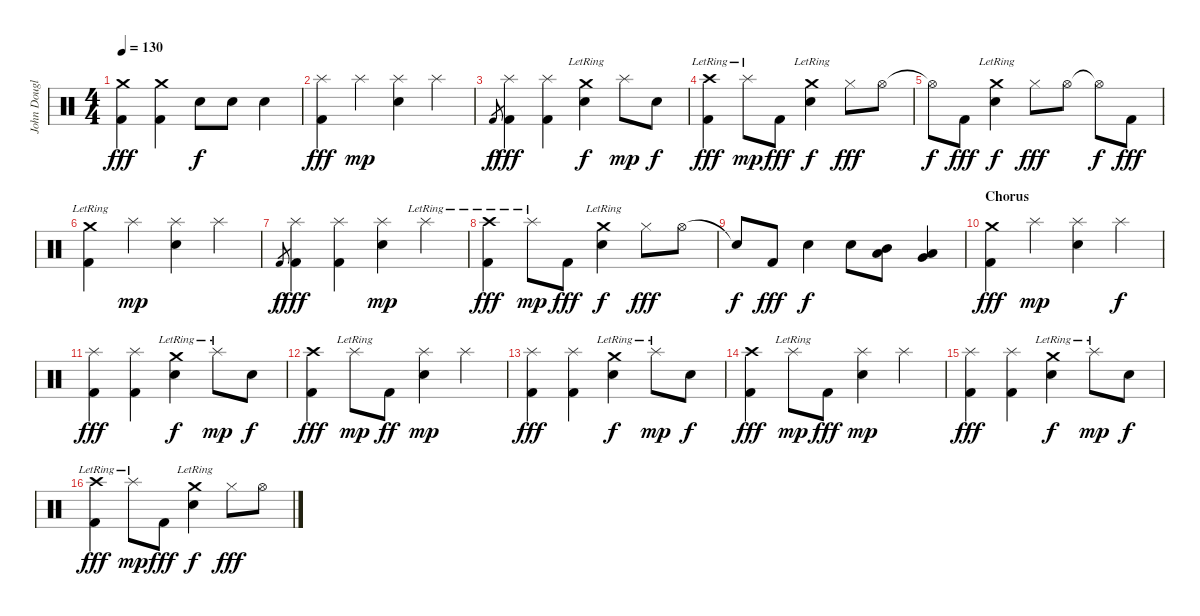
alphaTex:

\track ("John Douglas (Drums)" "John Dougl") {instrument percussion}
\staff {score}
\articulation defaults
\ts (4 4)
\tempo 130
\clef neutral
\ks c
("Crash medium (hit)" "Kick (hit) 2").4{dy fff} ("Crash medium (hit)" "Kick (hit) 2").4 "Snare (hit) 2".8{dy f} "Snare (hit) 2".8 "Snare (hit) 2".4 |
("Splash (hit)" "Kick (hit) 2").4{dy fff} "Splash (hit)".4{dy mp} ("Splash (hit)" "Snare (hit) 2").4 "Splash (hit)".4 |
"Kick (hit) 2".8{gr dy f} ("Splash (hit)" "Kick (hit) 2").4{dy fff} ("Splash (hit)" "Kick (hit) 2").4 ("Crash medium (hit)"{lr} "Snare (hit) 2").4{dy f} "Splash (hit)".8{dy mp} "Snare (hit) 2".8{dy f} |
("Crash high (hit)"{lr} "Kick (hit) 2").4{dy fff} "Splash (hit)"{lr}.8{dy mp} "Kick (hit) 2".8{dy fff} ("Crash medium (hit)"{lr} "Snare (hit) 2").4{dy f} "Hi-Hat (closed)".8{dy fff} "Hi-Hat (open)".8 |
"Hi-Hat (open)"{t}.8{dy f} "Kick (hit) 2".8{dy fff} ("Crash medium (hit)"{lr} "Snare (hit) 2").4{dy f} "Hi-Hat (closed)".8{dy fff} "Hi-Hat (open)".8 "Hi-Hat (open)"{t}.8{dy f} "Kick (hit) 2".8{dy fff} |
("Crash medium (hit)"{lr} "Kick (hit) 2").4 "Splash (hit)".4{dy mp} ("Splash (hit)" "Snare (hit) 2").4 "Splash (hit)".4 |
"Kick (hit) 2".8{gr dy f} ("Splash (hit)" "Kick (hit) 2").4{dy fff} ("Splash (hit)" "Kick (hit) 2").4 ("Splash (hit)" "Snare (hit) 2").4{dy mp} "Splash (hit)"{lr}.4 |
("Crash high (hit)"{lr} "Kick (hit) 2").4{dy fff} "Splash (hit)"{lr}.8{dy mp} "Kick (hit) 2".8{dy fff} ("Crash medium (hit)"{lr} "Snare (hit) 2").4{dy f} "Hi-Hat (closed)".8{dy fff} "Hi-Hat (open)".8 |
"Snare (hit)"{t}.8{dy f} "Kick (hit) 2".8{dy fff} "Snare (hit) 2".4{dy f} "Snare (hit) 2".8 ("Mid Tom (hit)" "Low Tom (hit)").8 ("Low Tom (hit)" "Very Low Tom (hit)").4 |
\section ("" "Chorus")
("Crash medium (hit)" "Kick (hit) 2").4{dy fff} "Splash (hit)".4{dy mp} ("Splash (hit)" "Snare (hit) 2").4 "Splash (hit)".4{dy f} |
("Splash (hit)" "Kick (hit) 2").4{dy fff} ("Splash (hit)" "Kick (hit) 2").4 ("Crash medium (hit)"{lr} "Snare (hit) 2").4{dy f} "Splash (hit)"{lr}.8{dy mp} "Snare (hit) 2".8{dy f} |
("Crash high (hit)" "Kick (hit) 2").4{dy fff} "Splash (hit)"{lr}.8{dy mp} "Kick (hit) 2".8{dy ff} ("Splash (hit)" "Snare (hit) 2").4{dy mp} "Splash (hit)".4 |
("Splash (hit)" "Kick (hit) 2").4{dy fff} ("Splash (hit)" "Kick (hit) 2").4 ("Crash medium (hit)"{lr} "Snare (hit) 2").4{dy f} "Splash (hit)"{lr}.8{dy mp} "Snare (hit) 2".8{dy f} |
("Crash high (hit)" "Kick (hit) 2").4{dy fff} "Splash (hit)"{lr}.8{dy mp} "Kick (hit) 2".8{dy fff} ("Splash (hit)" "Snare (hit) 2").4{dy mp} "Splash (hit)".4 |
("Splash (hit)" "Kick (hit) 2").4{dy fff} ("Splash (hit)" "Kick (hit) 2").4 ("Crash medium (hit)"{lr} "Snare (hit) 2").4{dy f} "Splash (hit)"{lr}.8{dy mp} "Snare (hit) 2".8{dy f} |
("Crash high (hit)"{lr} "Kick (hit) 2").4{dy fff} "Splash (hit)"{lr}.8{dy mp} "Kick (hit) 2".8{dy fff} ("Crash medium (hit)"{lr} "Snare (hit) 2").4{dy f} "Hi-Hat (closed)".8{dy fff} "Hi-Hat (open)".8
